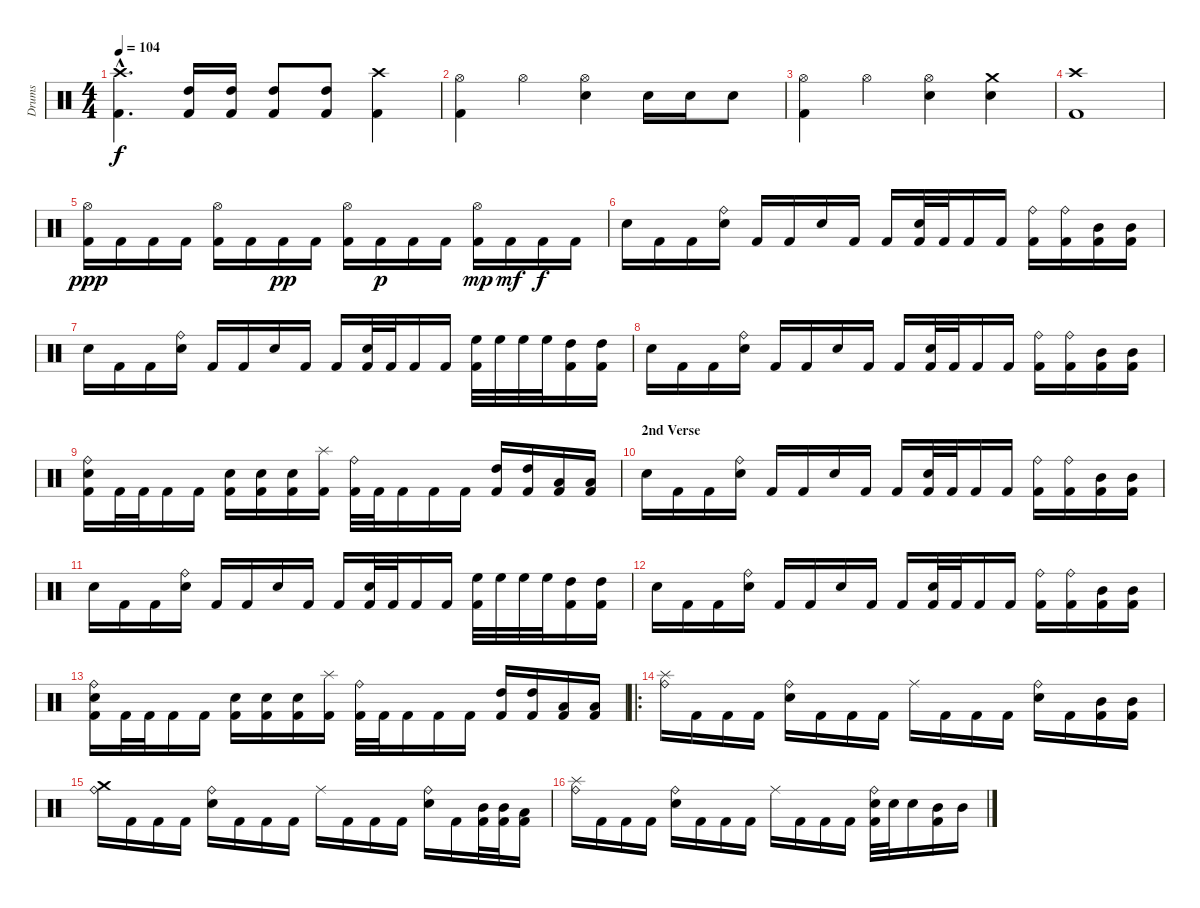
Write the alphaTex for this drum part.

\track ("Drums" "Drums") {instrument percussion}
\staff {score}
\articulation defaults
\ts (4 4)
\tempo 104
\clef neutral
\ks c
("Crash high (hit)"{hac} "Kick (hit) 2"{hac}).4{d dy f} ("High Tom (hit)" "Kick (hit) 2").16 ("High Tom (hit)" "Kick (hit) 2").16 ("High Tom (hit)" "Kick (hit) 2").8 ("High Tom (hit)" "Kick (hit) 2").8 ("Crash high (hit)" "Kick (hit) 2").4 |
("Hi-Hat (open)" "Kick (hit) 2").4 "Hi-Hat (open)".4 ("Hi-Hat (open)" "Snare (hit) 2").4 "Snare (hit) 2".16 "Snare (hit) 2".16 "Snare (hit) 2".8 |
("Hi-Hat (open)" "Kick (hit) 2").4 "Hi-Hat (open)".4 ("Hi-Hat (open)" "Snare (hit) 2").4 ("Crash medium (hit)" "Snare (hit) 2").4 |
("Crash high (hit)" "Kick (hit) 2").1 |
("Hi-Hat (open)" "Kick (hit) 2").16{dy ppp} "Kick (hit) 2".16 "Kick (hit) 2".16 "Kick (hit) 2".16 ("Hi-Hat (open)" "Kick (hit) 2").16 "Kick (hit) 2".16 "Kick (hit) 2".16{dy pp} "Kick (hit) 2".16 ("Hi-Hat (open)" "Kick (hit) 2").16 "Kick (hit) 2".16{dy p} "Kick (hit) 2".16 "Kick (hit) 2".16 ("Hi-Hat (open)" "Kick (hit) 2").16{dy mp} "Kick (hit) 2".16{dy mf} "Kick (hit) 2".16{dy f} "Kick (hit) 2".16 |
"Snare (hit) 2".16 "Kick (hit) 2".16 "Kick (hit) 2".16 ("Snare (hit) 2" "Ride (bell)").16 "Kick (hit) 2".16 "Kick (hit) 2".16 "Snare (hit) 2".16 "Kick (hit) 2".16 "Kick (hit) 2".16 ("Snare (hit) 2" "Kick (hit) 2").32 "Kick (hit) 2".32 "Kick (hit) 2".16 "Kick (hit) 2".16 ("Ride (bell)" "Kick (hit) 2").16 ("Ride (bell)" "Kick (hit) 2").16 ("Mid Tom (hit)" "Kick (hit) 2").16 ("Mid Tom (hit)" "Kick (hit) 2").16 |
"Snare (hit) 2".16 "Kick (hit) 2".16 "Kick (hit) 2".16 ("Snare (hit) 2" "Ride (bell)").16 "Kick (hit) 2".16 "Kick (hit) 2".16 "Snare (hit) 2".16 "Kick (hit) 2".16 "Kick (hit) 2".16 ("Snare (hit) 2" "Kick (hit) 2").32 "Kick (hit) 2".32 "Kick (hit) 2".16 "Kick (hit) 2".16 ("High Floor Tom (hit)" "Kick (hit) 2").32 "High Floor Tom (hit)".32 "High Floor Tom (hit)".32 "High Floor Tom (hit)".32 ("High Tom (hit)" "Kick (hit) 2").16 ("High Tom (hit)" "Kick (hit) 2").16 |
"Snare (hit) 2".16 "Kick (hit) 2".16 "Kick (hit) 2".16 ("Snare (hit) 2" "Ride (bell)").16 "Kick (hit) 2".16 "Kick (hit) 2".16 "Snare (hit) 2".16 "Kick (hit) 2".16 "Kick (hit) 2".16 ("Snare (hit) 2" "Kick (hit) 2").32 "Kick (hit) 2".32 "Kick (hit) 2".16 "Kick (hit) 2".16 ("Ride (bell)" "Kick (hit) 2").16 ("Ride (bell)" "Kick (hit) 2").16 ("Mid Tom (hit)" "Kick (hit) 2").16 ("Mid Tom (hit)" "Kick (hit) 2").16 |
("Ride (bell)" "Snare (hit) 2" "Kick (hit) 2").16 "Kick (hit) 2".32 "Kick (hit) 2".32 "Kick (hit) 2".16 "Kick (hit) 2".16 ("Snare (hit) 2" "Kick (hit) 2").16 ("Snare (hit) 2" "Kick (hit) 2").16 ("Snare (hit) 2" "Kick (hit) 2").16 ("Splash (hit)" "Kick (hit) 2").16 ("Ride (bell)" "Kick (hit) 2").32 "Kick (hit) 2".32 "Kick (hit) 2".16 "Kick (hit) 2".16 "Kick (hit) 2".16 ("High Tom (hit)" "Kick (hit) 2").16 ("High Tom (hit)" "Kick (hit) 2").16 ("Low Tom (hit)" "Kick (hit) 2").16 ("Low Tom (hit)" "Kick (hit) 2").16 |
\section ("" "2nd Verse")
"Snare (hit) 2".16 "Kick (hit) 2".16 "Kick (hit) 2".16 ("Snare (hit) 2" "Ride (bell)").16 "Kick (hit) 2".16 "Kick (hit) 2".16 "Snare (hit) 2".16 "Kick (hit) 2".16 "Kick (hit) 2".16 ("Snare (hit) 2" "Kick (hit) 2").32 "Kick (hit) 2".32 "Kick (hit) 2".16 "Kick (hit) 2".16 ("Ride (bell)" "Kick (hit) 2").16 ("Ride (bell)" "Kick (hit) 2").16 ("Mid Tom (hit)" "Kick (hit) 2").16 ("Mid Tom (hit)" "Kick (hit) 2").16 |
"Snare (hit) 2".16 "Kick (hit) 2".16 "Kick (hit) 2".16 ("Snare (hit) 2" "Ride (bell)").16 "Kick (hit) 2".16 "Kick (hit) 2".16 "Snare (hit) 2".16 "Kick (hit) 2".16 "Kick (hit) 2".16 ("Snare (hit) 2" "Kick (hit) 2").32 "Kick (hit) 2".32 "Kick (hit) 2".16 "Kick (hit) 2".16 ("High Floor Tom (hit)" "Kick (hit) 2").32 "High Floor Tom (hit)".32 "High Floor Tom (hit)".32 "High Floor Tom (hit)".32 ("High Tom (hit)" "Kick (hit) 2").16 ("High Tom (hit)" "Kick (hit) 2").16 |
"Snare (hit) 2".16 "Kick (hit) 2".16 "Kick (hit) 2".16 ("Snare (hit) 2" "Ride (bell)").16 "Kick (hit) 2".16 "Kick (hit) 2".16 "Snare (hit) 2".16 "Kick (hit) 2".16 "Kick (hit) 2".16 ("Snare (hit) 2" "Kick (hit) 2").32 "Kick (hit) 2".32 "Kick (hit) 2".16 "Kick (hit) 2".16 ("Ride (bell)" "Kick (hit) 2").16 ("Ride (bell)" "Kick (hit) 2").16 ("Mid Tom (hit)" "Kick (hit) 2").16 ("Mid Tom (hit)" "Kick (hit) 2").16 |
("Ride (bell)" "Snare (hit) 2" "Kick (hit) 2").16 "Kick (hit) 2".32 "Kick (hit) 2".32 "Kick (hit) 2".16 "Kick (hit) 2".16 ("Snare (hit) 2" "Kick (hit) 2").16 ("Snare (hit) 2" "Kick (hit) 2").16 ("Snare (hit) 2" "Kick (hit) 2").16 ("Splash (hit)" "Kick (hit) 2").16 ("Ride (bell)" "Kick (hit) 2").32 "Kick (hit) 2".32 "Kick (hit) 2".16 "Kick (hit) 2".16 "Kick (hit) 2".16 ("High Tom (hit)" "Kick (hit) 2").16 ("High Tom (hit)" "Kick (hit) 2").16 ("Low Tom (hit)" "Kick (hit) 2").16 ("Low Tom (hit)" "Kick (hit) 2").16 |
\ro
("Ride (bell)" "Splash (hit)").16 "Kick (hit) 2".16 "Kick (hit) 2".16 "Kick (hit) 2".16 ("Ride (bell)" "Snare (hit) 2").16 "Kick (hit) 2".16 "Kick (hit) 2".16 "Kick (hit) 2".16 "Ride (middle)".16 "Kick (hit) 2".16 "Kick (hit) 2".16 "Kick (hit) 2".16 ("Ride (bell)" "Snare (hit) 2").16 "Kick (hit) 2".16 ("Mid Tom (hit)" "Kick (hit) 2").16 ("Mid Tom (hit)" "Kick (hit) 2").16 |
("Ride (bell)" "Crash medium (hit)").16 "Kick (hit) 2".16 "Kick (hit) 2".16 "Kick (hit) 2".16 ("Ride (bell)" "Snare (hit) 2").16 "Kick (hit) 2".16 "Kick (hit) 2".16 "Kick (hit) 2".16 "Ride (middle)".16 "Kick (hit) 2".16 "Kick (hit) 2".16 "Kick (hit) 2".16 ("Ride (bell)" "Snare (hit) 2").16 "Kick (hit) 2".16 ("Mid Tom (hit)" "Kick (hit) 2").32 ("Mid Tom (hit)" "Kick (hit) 2").32 ("Low Tom (hit)" "Kick (hit) 2").16 |
("Ride (bell)" "Splash (hit)").16 "Kick (hit) 2".16 "Kick (hit) 2".16 "Kick (hit) 2".16 ("Ride (bell)" "Snare (hit) 2").16 "Kick (hit) 2".16 "Kick (hit) 2".16 "Kick (hit) 2".16 "Ride (middle)".16 "Kick (hit) 2".16 "Kick (hit) 2".16 "Kick (hit) 2".16 ("Ride (bell)" "Snare (hit) 2" "Kick (hit) 2").32 "Snare (hit) 2".32 "Snare (hit) 2".16 ("Mid Tom (hit)" "Kick (hit) 2").16 "Mid Tom (hit)".16
